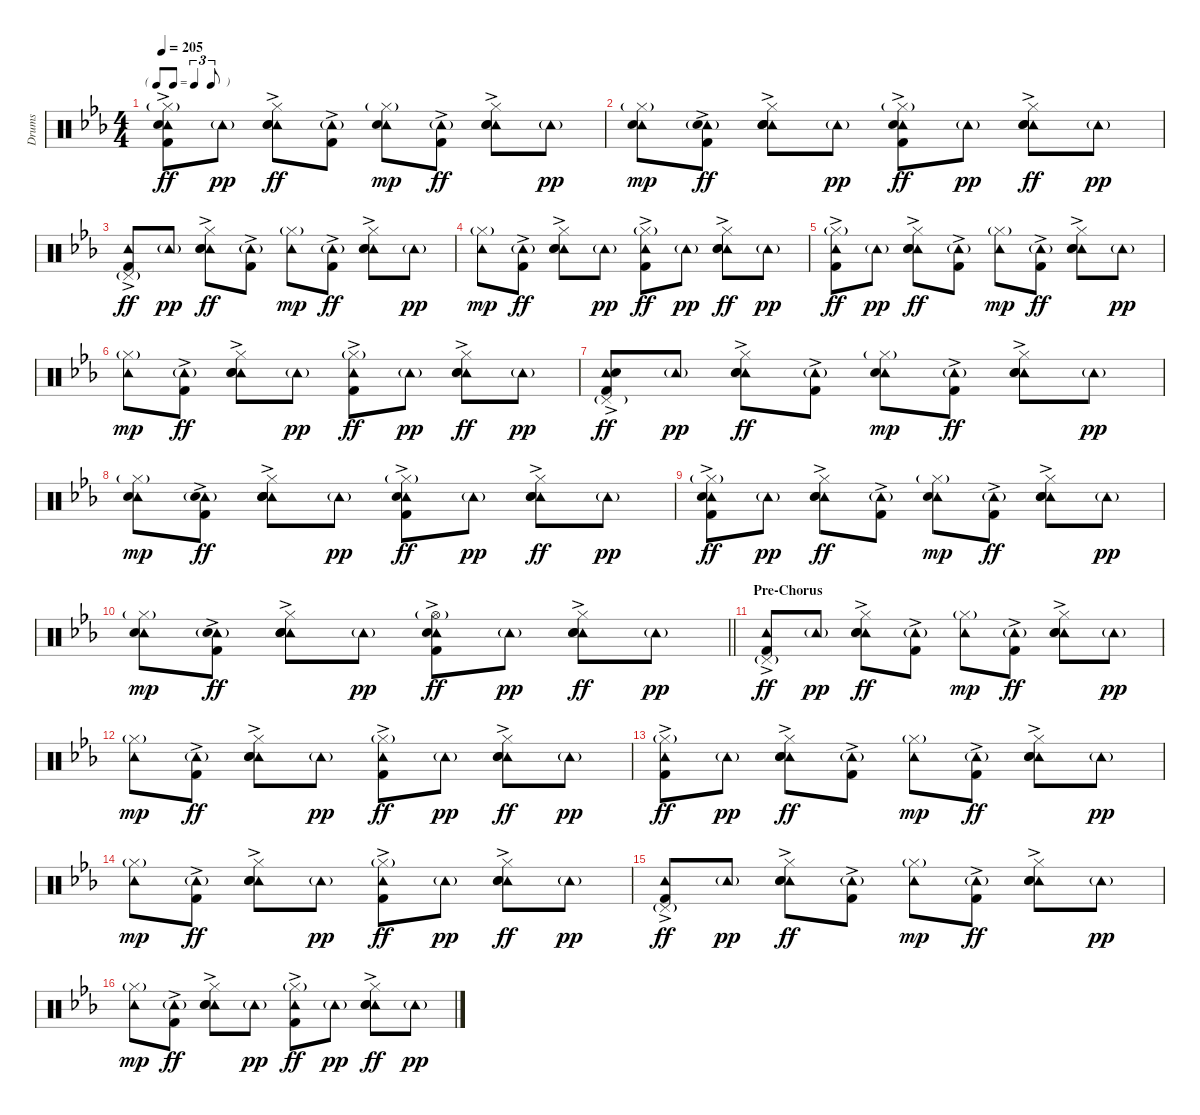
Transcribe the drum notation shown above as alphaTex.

\track ("Drums" "Drums") {instrument percussion}
\staff {score}
\articulation defaults
\ts (4 4)
\tf triplet8th
\tempo 205
\clef neutral
\ks eb
("Hi-Hat (closed)"{g} "Tambourine (hit)" "Hand Clap (hit)" "Kick (hit) 2"{ac}).8{dy ff} "Tambourine (hit)"{g}.8{dy pp} ("Hi-Hat (closed)" "Tambourine (hit)"{ac} "Electric Snare (hit)"{ac} "Snare (hit) 2").8{dy ff} ("Tambourine (hit)"{g} "Kick (hit) 2"{ac}).8 ("Hi-Hat (closed)"{g} "Tambourine (hit)" "Hand Clap (hit)").8{dy mp} ("Tambourine (hit)"{g} "Kick (hit) 2"{ac}).8{dy ff} ("Hi-Hat (closed)" "Tambourine (hit)"{ac} "Electric Snare (hit)"{ac} "Snare (hit) 2").8 "Tambourine (hit)"{g}.8{dy pp} |
("Hi-Hat (closed)"{g} "Tambourine (hit)" "Hand Clap (hit)").8{dy mp} ("Tambourine (hit)"{g} "Hand Clap (hit)" "Kick (hit) 2"{ac}).8{dy ff} ("Hi-Hat (closed)" "Tambourine (hit)"{ac} "Hand Clap (hit)" "Electric Snare (hit)"{ac} "Snare (hit) 2").8 "Tambourine (hit)"{g}.8{dy pp} ("Hi-Hat (closed)"{g} "Tambourine (hit)" "Hand Clap (hit)" "Kick (hit) 2"{ac}).8{dy ff} "Tambourine (hit)"{g}.8{dy pp} ("Hi-Hat (closed)" "Tambourine (hit)"{ac} "Electric Snare (hit)"{ac} "Snare (hit) 2").8{dy ff} "Tambourine (hit)"{g}.8{dy pp} |
("Pedal Hi-Hat (hit)"{g} "Tambourine (hit)" "Kick (hit) 2"{ac}).8{dy ff} "Tambourine (hit)"{g}.8{dy pp} ("Hi-Hat (closed)" "Tambourine (hit)"{ac} "Electric Snare (hit)"{ac} "Snare (hit) 2").8{dy ff} ("Tambourine (hit)"{g} "Kick (hit) 2"{ac}).8 ("Hi-Hat (closed)"{g} "Tambourine (hit)").8{dy mp} ("Tambourine (hit)"{g} "Kick (hit) 2"{ac}).8{dy ff} ("Hi-Hat (closed)" "Tambourine (hit)"{ac} "Electric Snare (hit)"{ac} "Snare (hit) 2").8 "Tambourine (hit)"{g}.8{dy pp} |
("Hi-Hat (closed)"{g} "Tambourine (hit)").8{dy mp} ("Tambourine (hit)"{g} "Kick (hit) 2"{ac}).8{dy ff} ("Hi-Hat (closed)" "Tambourine (hit)"{ac} "Electric Snare (hit)"{ac} "Snare (hit) 2").8 "Tambourine (hit)"{g}.8{dy pp} ("Hi-Hat (closed)"{g} "Tambourine (hit)" "Kick (hit) 2"{ac}).8{dy ff} "Tambourine (hit)"{g}.8{dy pp} ("Hi-Hat (closed)" "Tambourine (hit)"{ac} "Electric Snare (hit)"{ac} "Snare (hit) 2").8{dy ff} "Tambourine (hit)"{g}.8{dy pp} |
("Hi-Hat (closed)"{g} "Tambourine (hit)" "Kick (hit) 2"{ac}).8{dy ff} "Tambourine (hit)"{g}.8{dy pp} ("Hi-Hat (closed)" "Tambourine (hit)"{ac} "Electric Snare (hit)"{ac} "Snare (hit) 2").8{dy ff} ("Tambourine (hit)"{g} "Kick (hit) 2"{ac}).8 ("Hi-Hat (closed)"{g} "Tambourine (hit)").8{dy mp} ("Tambourine (hit)"{g} "Kick (hit) 2"{ac}).8{dy ff} ("Hi-Hat (closed)" "Tambourine (hit)"{ac} "Electric Snare (hit)"{ac} "Snare (hit) 2").8 "Tambourine (hit)"{g}.8{dy pp} |
("Hi-Hat (closed)"{g} "Tambourine (hit)").8{dy mp} ("Tambourine (hit)"{g} "Kick (hit) 2"{ac}).8{dy ff} ("Hi-Hat (closed)" "Tambourine (hit)"{ac} "Electric Snare (hit)"{ac} "Snare (hit) 2").8 "Tambourine (hit)"{g}.8{dy pp} ("Hi-Hat (closed)"{g} "Tambourine (hit)" "Kick (hit) 2"{ac}).8{dy ff} "Tambourine (hit)"{g}.8{dy pp} ("Hi-Hat (closed)" "Tambourine (hit)"{ac} "Electric Snare (hit)"{ac} "Snare (hit) 2").8{dy ff} "Tambourine (hit)"{g}.8{dy pp} |
("Pedal Hi-Hat (hit)"{g} "Tambourine (hit)" "Hand Clap (hit)" "Kick (hit) 2"{ac}).8{dy ff} "Tambourine (hit)"{g}.8{dy pp} ("Hi-Hat (closed)" "Tambourine (hit)"{ac} "Electric Snare (hit)"{ac} "Snare (hit) 2").8{dy ff} ("Tambourine (hit)"{g} "Kick (hit) 2"{ac}).8 ("Hi-Hat (closed)"{g} "Tambourine (hit)" "Hand Clap (hit)").8{dy mp} ("Tambourine (hit)"{g} "Kick (hit) 2"{ac}).8{dy ff} ("Hi-Hat (closed)" "Tambourine (hit)"{ac} "Electric Snare (hit)"{ac} "Snare (hit) 2").8 "Tambourine (hit)"{g}.8{dy pp} |
("Hi-Hat (closed)"{g} "Tambourine (hit)" "Hand Clap (hit)").8{dy mp} ("Tambourine (hit)"{g} "Hand Clap (hit)" "Kick (hit) 2"{ac}).8{dy ff} ("Hi-Hat (closed)" "Tambourine (hit)"{ac} "Hand Clap (hit)" "Electric Snare (hit)"{ac} "Snare (hit) 2").8 "Tambourine (hit)"{g}.8{dy pp} ("Hi-Hat (closed)"{g} "Tambourine (hit)" "Hand Clap (hit)" "Kick (hit) 2"{ac}).8{dy ff} "Tambourine (hit)"{g}.8{dy pp} ("Hi-Hat (closed)" "Tambourine (hit)"{ac} "Electric Snare (hit)"{ac} "Snare (hit) 2").8{dy ff} "Tambourine (hit)"{g}.8{dy pp} |
("Hi-Hat (closed)"{g} "Tambourine (hit)" "Hand Clap (hit)" "Kick (hit) 2"{ac}).8{dy ff} "Tambourine (hit)"{g}.8{dy pp} ("Hi-Hat (closed)" "Tambourine (hit)"{ac} "Electric Snare (hit)"{ac} "Snare (hit) 2").8{dy ff} ("Tambourine (hit)"{g} "Kick (hit) 2"{ac}).8 ("Hi-Hat (closed)"{g} "Tambourine (hit)" "Hand Clap (hit)").8{dy mp} ("Tambourine (hit)"{g} "Kick (hit) 2"{ac}).8{dy ff} ("Hi-Hat (closed)" "Tambourine (hit)"{ac} "Electric Snare (hit)"{ac} "Snare (hit) 2").8 "Tambourine (hit)"{g}.8{dy pp} |
\barLineRight lightlight
("Hi-Hat (closed)"{g} "Tambourine (hit)" "Hand Clap (hit)").8{dy mp} ("Tambourine (hit)"{g} "Hand Clap (hit)" "Kick (hit) 2"{ac}).8{dy ff} ("Hi-Hat (closed)" "Tambourine (hit)"{ac} "Hand Clap (hit)" "Electric Snare (hit)"{ac} "Snare (hit) 2").8 "Tambourine (hit)"{g}.8{dy pp} ("Hi-Hat (open)"{g} "Tambourine (hit)" "Hand Clap (hit)" "Kick (hit) 2"{ac}).8{dy ff} "Tambourine (hit)"{g}.8{dy pp} ("Hi-Hat (closed)" "Tambourine (hit)"{ac} "Electric Snare (hit)"{ac} "Snare (hit) 2").8{dy ff} "Tambourine (hit)"{g}.8{dy pp} |
\section ("" "Pre-Chorus")
("Pedal Hi-Hat (hit)"{g} "Tambourine (hit)" "Kick (hit) 2"{ac}).8{dy ff} "Tambourine (hit)"{g}.8{dy pp} ("Hi-Hat (closed)" "Tambourine (hit)"{ac} "Electric Snare (hit)"{ac} "Snare (hit) 2").8{dy ff} ("Tambourine (hit)"{g} "Kick (hit) 2"{ac}).8 ("Hi-Hat (closed)"{g} "Tambourine (hit)").8{dy mp} ("Tambourine (hit)"{g} "Kick (hit) 2"{ac}).8{dy ff} ("Hi-Hat (closed)" "Tambourine (hit)"{ac} "Electric Snare (hit)"{ac} "Snare (hit) 2").8 "Tambourine (hit)"{g}.8{dy pp} |
("Hi-Hat (closed)"{g} "Tambourine (hit)").8{dy mp} ("Tambourine (hit)"{g} "Kick (hit) 2"{ac}).8{dy ff} ("Hi-Hat (closed)" "Tambourine (hit)"{ac} "Electric Snare (hit)"{ac} "Snare (hit) 2").8 "Tambourine (hit)"{g}.8{dy pp} ("Hi-Hat (closed)"{g} "Tambourine (hit)" "Kick (hit) 2"{ac}).8{dy ff} "Tambourine (hit)"{g}.8{dy pp} ("Hi-Hat (closed)" "Tambourine (hit)"{ac} "Electric Snare (hit)"{ac} "Snare (hit) 2").8{dy ff} "Tambourine (hit)"{g}.8{dy pp} |
("Hi-Hat (closed)"{g} "Tambourine (hit)" "Kick (hit) 2"{ac}).8{dy ff} "Tambourine (hit)"{g}.8{dy pp} ("Hi-Hat (closed)" "Tambourine (hit)"{ac} "Electric Snare (hit)"{ac} "Snare (hit) 2").8{dy ff} ("Tambourine (hit)"{g} "Kick (hit) 2"{ac}).8 ("Hi-Hat (closed)"{g} "Tambourine (hit)").8{dy mp} ("Tambourine (hit)"{g} "Kick (hit) 2"{ac}).8{dy ff} ("Hi-Hat (closed)" "Tambourine (hit)"{ac} "Electric Snare (hit)"{ac} "Snare (hit) 2").8 "Tambourine (hit)"{g}.8{dy pp} |
("Hi-Hat (closed)"{g} "Tambourine (hit)").8{dy mp} ("Tambourine (hit)"{g} "Kick (hit) 2"{ac}).8{dy ff} ("Hi-Hat (closed)" "Tambourine (hit)"{ac} "Electric Snare (hit)"{ac} "Snare (hit) 2").8 "Tambourine (hit)"{g}.8{dy pp} ("Hi-Hat (closed)"{g} "Tambourine (hit)" "Kick (hit) 2"{ac}).8{dy ff} "Tambourine (hit)"{g}.8{dy pp} ("Hi-Hat (closed)" "Tambourine (hit)"{ac} "Electric Snare (hit)"{ac} "Snare (hit) 2").8{dy ff} "Tambourine (hit)"{g}.8{dy pp} |
("Pedal Hi-Hat (hit)"{g} "Tambourine (hit)" "Kick (hit) 2"{ac}).8{dy ff} "Tambourine (hit)"{g}.8{dy pp} ("Hi-Hat (closed)" "Tambourine (hit)"{ac} "Electric Snare (hit)"{ac} "Snare (hit) 2").8{dy ff} ("Tambourine (hit)"{g} "Kick (hit) 2"{ac}).8 ("Hi-Hat (closed)"{g} "Tambourine (hit)").8{dy mp} ("Tambourine (hit)"{g} "Kick (hit) 2"{ac}).8{dy ff} ("Hi-Hat (closed)" "Tambourine (hit)"{ac} "Electric Snare (hit)"{ac} "Snare (hit) 2").8 "Tambourine (hit)"{g}.8{dy pp} |
("Hi-Hat (closed)"{g} "Tambourine (hit)").8{dy mp} ("Tambourine (hit)"{g} "Kick (hit) 2"{ac}).8{dy ff} ("Hi-Hat (closed)" "Tambourine (hit)"{ac} "Electric Snare (hit)"{ac} "Snare (hit) 2").8 "Tambourine (hit)"{g}.8{dy pp} ("Hi-Hat (closed)"{g} "Tambourine (hit)" "Kick (hit) 2"{ac}).8{dy ff} "Tambourine (hit)"{g}.8{dy pp} ("Hi-Hat (closed)" "Tambourine (hit)"{ac} "Electric Snare (hit)"{ac} "Snare (hit) 2").8{dy ff} "Tambourine (hit)"{g}.8{dy pp}
